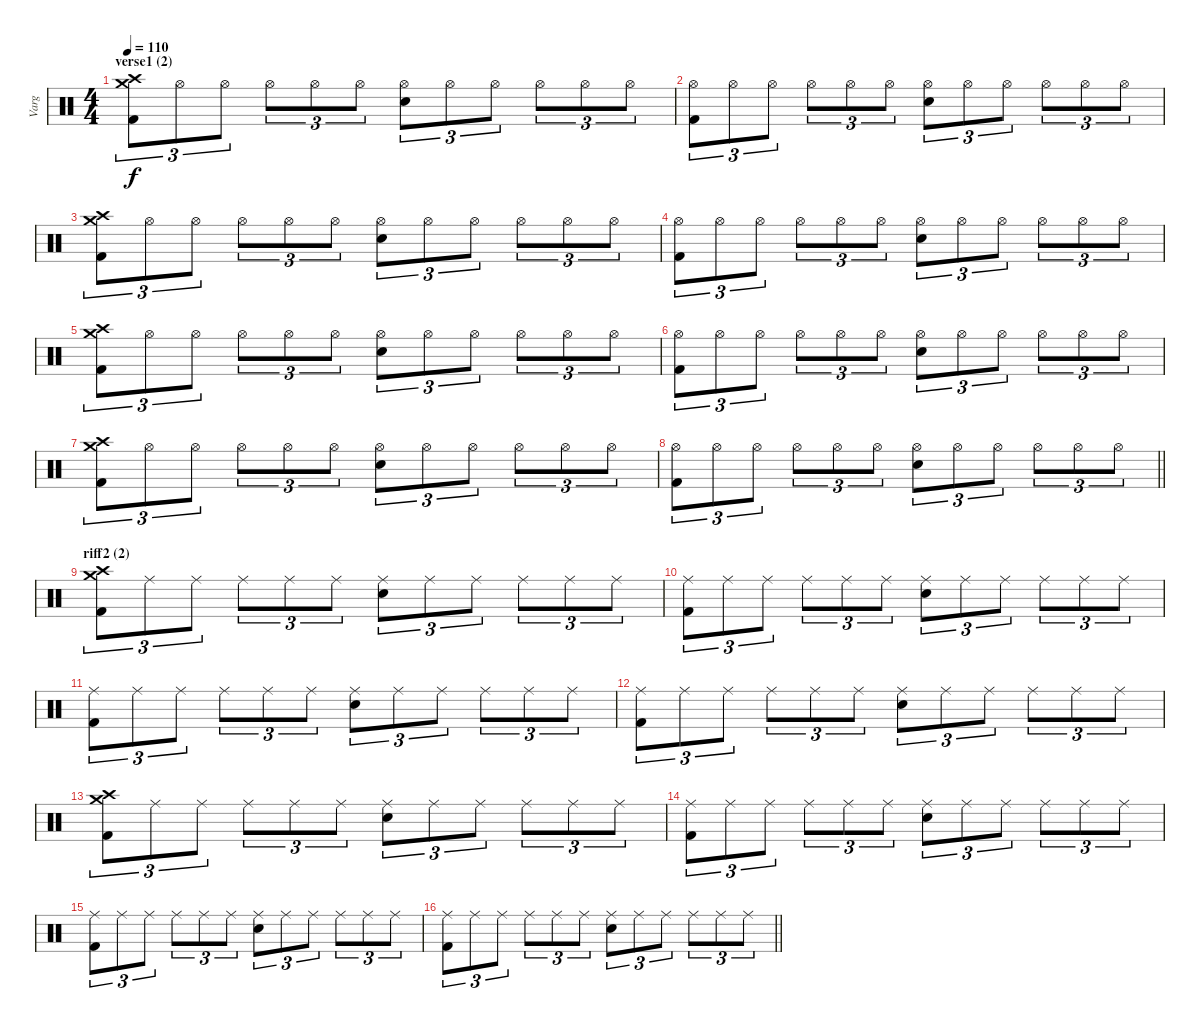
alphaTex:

\track ("Varg" "Varg") {instrument percussion}
\staff {score}
\articulation defaults
\ts (4 4)
\section ("" "verse1 (2)")
\tempo 110
\clef neutral
\ks c
("Crash high (hit)" "Crash medium (hit)" "Kick (hit) 2").8{tu (3 2) dy f} "Hi-Hat (open)".8{tu (3 2)} "Hi-Hat (open)".8{tu (3 2)} "Hi-Hat (open)".8{tu (3 2)} "Hi-Hat (open)".8{tu (3 2)} "Hi-Hat (open)".8{tu (3 2)} ("Hi-Hat (open)" "Snare (hit) 2").8{tu (3 2)} "Hi-Hat (open)".8{tu (3 2)} "Hi-Hat (open)".8{tu (3 2)} "Hi-Hat (open)".8{tu (3 2)} "Hi-Hat (open)".8{tu (3 2)} "Hi-Hat (open)".8{tu (3 2)} |
("Hi-Hat (open)" "Kick (hit) 2").8{tu (3 2)} "Hi-Hat (open)".8{tu (3 2)} "Hi-Hat (open)".8{tu (3 2)} "Hi-Hat (open)".8{tu (3 2)} "Hi-Hat (open)".8{tu (3 2)} "Hi-Hat (open)".8{tu (3 2)} ("Hi-Hat (open)" "Snare (hit) 2").8{tu (3 2)} "Hi-Hat (open)".8{tu (3 2)} "Hi-Hat (open)".8{tu (3 2)} "Hi-Hat (open)".8{tu (3 2)} "Hi-Hat (open)".8{tu (3 2)} "Hi-Hat (open)".8{tu (3 2)} |
("Crash high (hit)" "Crash medium (hit)" "Kick (hit) 2").8{tu (3 2)} "Hi-Hat (open)".8{tu (3 2)} "Hi-Hat (open)".8{tu (3 2)} "Hi-Hat (open)".8{tu (3 2)} "Hi-Hat (open)".8{tu (3 2)} "Hi-Hat (open)".8{tu (3 2)} ("Hi-Hat (open)" "Snare (hit) 2").8{tu (3 2)} "Hi-Hat (open)".8{tu (3 2)} "Hi-Hat (open)".8{tu (3 2)} "Hi-Hat (open)".8{tu (3 2)} "Hi-Hat (open)".8{tu (3 2)} "Hi-Hat (open)".8{tu (3 2)} |
("Hi-Hat (open)" "Kick (hit) 2").8{tu (3 2)} "Hi-Hat (open)".8{tu (3 2)} "Hi-Hat (open)".8{tu (3 2)} "Hi-Hat (open)".8{tu (3 2)} "Hi-Hat (open)".8{tu (3 2)} "Hi-Hat (open)".8{tu (3 2)} ("Hi-Hat (open)" "Snare (hit) 2").8{tu (3 2)} "Hi-Hat (open)".8{tu (3 2)} "Hi-Hat (open)".8{tu (3 2)} "Hi-Hat (open)".8{tu (3 2)} "Hi-Hat (open)".8{tu (3 2)} "Hi-Hat (open)".8{tu (3 2)} |
("Crash high (hit)" "Crash medium (hit)" "Kick (hit) 2").8{tu (3 2)} "Hi-Hat (open)".8{tu (3 2)} "Hi-Hat (open)".8{tu (3 2)} "Hi-Hat (open)".8{tu (3 2)} "Hi-Hat (open)".8{tu (3 2)} "Hi-Hat (open)".8{tu (3 2)} ("Hi-Hat (open)" "Snare (hit) 2").8{tu (3 2)} "Hi-Hat (open)".8{tu (3 2)} "Hi-Hat (open)".8{tu (3 2)} "Hi-Hat (open)".8{tu (3 2)} "Hi-Hat (open)".8{tu (3 2)} "Hi-Hat (open)".8{tu (3 2)} |
("Hi-Hat (open)" "Kick (hit) 2").8{tu (3 2)} "Hi-Hat (open)".8{tu (3 2)} "Hi-Hat (open)".8{tu (3 2)} "Hi-Hat (open)".8{tu (3 2)} "Hi-Hat (open)".8{tu (3 2)} "Hi-Hat (open)".8{tu (3 2)} ("Hi-Hat (open)" "Snare (hit) 2").8{tu (3 2)} "Hi-Hat (open)".8{tu (3 2)} "Hi-Hat (open)".8{tu (3 2)} "Hi-Hat (open)".8{tu (3 2)} "Hi-Hat (open)".8{tu (3 2)} "Hi-Hat (open)".8{tu (3 2)} |
("Crash high (hit)" "Crash medium (hit)" "Kick (hit) 2").8{tu (3 2)} "Hi-Hat (open)".8{tu (3 2)} "Hi-Hat (open)".8{tu (3 2)} "Hi-Hat (open)".8{tu (3 2)} "Hi-Hat (open)".8{tu (3 2)} "Hi-Hat (open)".8{tu (3 2)} ("Hi-Hat (open)" "Snare (hit) 2").8{tu (3 2)} "Hi-Hat (open)".8{tu (3 2)} "Hi-Hat (open)".8{tu (3 2)} "Hi-Hat (open)".8{tu (3 2)} "Hi-Hat (open)".8{tu (3 2)} "Hi-Hat (open)".8{tu (3 2)} |
\barLineRight lightlight
("Hi-Hat (open)" "Kick (hit) 2").8{tu (3 2)} "Hi-Hat (open)".8{tu (3 2)} "Hi-Hat (open)".8{tu (3 2)} "Hi-Hat (open)".8{tu (3 2)} "Hi-Hat (open)".8{tu (3 2)} "Hi-Hat (open)".8{tu (3 2)} ("Hi-Hat (open)" "Snare (hit) 2").8{tu (3 2)} "Hi-Hat (open)".8{tu (3 2)} "Hi-Hat (open)".8{tu (3 2)} "Hi-Hat (open)".8{tu (3 2)} "Hi-Hat (open)".8{tu (3 2)} "Hi-Hat (open)".8{tu (3 2)} |
\section ("" "riff2 (2)")
("Crash high (hit)" "Crash medium (hit)" "Kick (hit) 2").8{tu (3 2)} "Ride (middle)".8{tu (3 2)} "Ride (middle)".8{tu (3 2)} "Ride (middle)".8{tu (3 2)} "Ride (middle)".8{tu (3 2)} "Ride (middle)".8{tu (3 2)} ("Ride (middle)" "Snare (hit) 2").8{tu (3 2)} "Ride (middle)".8{tu (3 2)} "Ride (middle)".8{tu (3 2)} "Ride (middle)".8{tu (3 2)} "Ride (middle)".8{tu (3 2)} "Ride (middle)".8{tu (3 2)} |
("Ride (middle)" "Kick (hit) 2").8{tu (3 2)} "Ride (middle)".8{tu (3 2)} "Ride (middle)".8{tu (3 2)} "Ride (middle)".8{tu (3 2)} "Ride (middle)".8{tu (3 2)} "Ride (middle)".8{tu (3 2)} ("Ride (middle)" "Snare (hit) 2").8{tu (3 2)} "Ride (middle)".8{tu (3 2)} "Ride (middle)".8{tu (3 2)} "Ride (middle)".8{tu (3 2)} "Ride (middle)".8{tu (3 2)} "Ride (middle)".8{tu (3 2)} |
("Ride (middle)" "Kick (hit) 2").8{tu (3 2)} "Ride (middle)".8{tu (3 2)} "Ride (middle)".8{tu (3 2)} "Ride (middle)".8{tu (3 2)} "Ride (middle)".8{tu (3 2)} "Ride (middle)".8{tu (3 2)} ("Ride (middle)" "Snare (hit) 2").8{tu (3 2)} "Ride (middle)".8{tu (3 2)} "Ride (middle)".8{tu (3 2)} "Ride (middle)".8{tu (3 2)} "Ride (middle)".8{tu (3 2)} "Ride (middle)".8{tu (3 2)} |
("Ride (middle)" "Kick (hit) 2").8{tu (3 2)} "Ride (middle)".8{tu (3 2)} "Ride (middle)".8{tu (3 2)} "Ride (middle)".8{tu (3 2)} "Ride (middle)".8{tu (3 2)} "Ride (middle)".8{tu (3 2)} ("Ride (middle)" "Snare (hit) 2").8{tu (3 2)} "Ride (middle)".8{tu (3 2)} "Ride (middle)".8{tu (3 2)} "Ride (middle)".8{tu (3 2)} "Ride (middle)".8{tu (3 2)} "Ride (middle)".8{tu (3 2)} |
("Crash high (hit)" "Crash medium (hit)" "Kick (hit) 2").8{tu (3 2)} "Ride (middle)".8{tu (3 2)} "Ride (middle)".8{tu (3 2)} "Ride (middle)".8{tu (3 2)} "Ride (middle)".8{tu (3 2)} "Ride (middle)".8{tu (3 2)} ("Ride (middle)" "Snare (hit) 2").8{tu (3 2)} "Ride (middle)".8{tu (3 2)} "Ride (middle)".8{tu (3 2)} "Ride (middle)".8{tu (3 2)} "Ride (middle)".8{tu (3 2)} "Ride (middle)".8{tu (3 2)} |
("Ride (middle)" "Kick (hit) 2").8{tu (3 2)} "Ride (middle)".8{tu (3 2)} "Ride (middle)".8{tu (3 2)} "Ride (middle)".8{tu (3 2)} "Ride (middle)".8{tu (3 2)} "Ride (middle)".8{tu (3 2)} ("Ride (middle)" "Snare (hit) 2").8{tu (3 2)} "Ride (middle)".8{tu (3 2)} "Ride (middle)".8{tu (3 2)} "Ride (middle)".8{tu (3 2)} "Ride (middle)".8{tu (3 2)} "Ride (middle)".8{tu (3 2)} |
("Ride (middle)" "Kick (hit) 2").8{tu (3 2)} "Ride (middle)".8{tu (3 2)} "Ride (middle)".8{tu (3 2)} "Ride (middle)".8{tu (3 2)} "Ride (middle)".8{tu (3 2)} "Ride (middle)".8{tu (3 2)} ("Ride (middle)" "Snare (hit) 2").8{tu (3 2)} "Ride (middle)".8{tu (3 2)} "Ride (middle)".8{tu (3 2)} "Ride (middle)".8{tu (3 2)} "Ride (middle)".8{tu (3 2)} "Ride (middle)".8{tu (3 2)} |
\barLineRight lightlight
("Ride (middle)" "Kick (hit) 2").8{tu (3 2)} "Ride (middle)".8{tu (3 2)} "Ride (middle)".8{tu (3 2)} "Ride (middle)".8{tu (3 2)} "Ride (middle)".8{tu (3 2)} "Ride (middle)".8{tu (3 2)} ("Ride (middle)" "Snare (hit) 2").8{tu (3 2)} "Ride (middle)".8{tu (3 2)} "Ride (middle)".8{tu (3 2)} "Ride (middle)".8{tu (3 2)} "Ride (middle)".8{tu (3 2)} "Ride (middle)".8{tu (3 2)}
